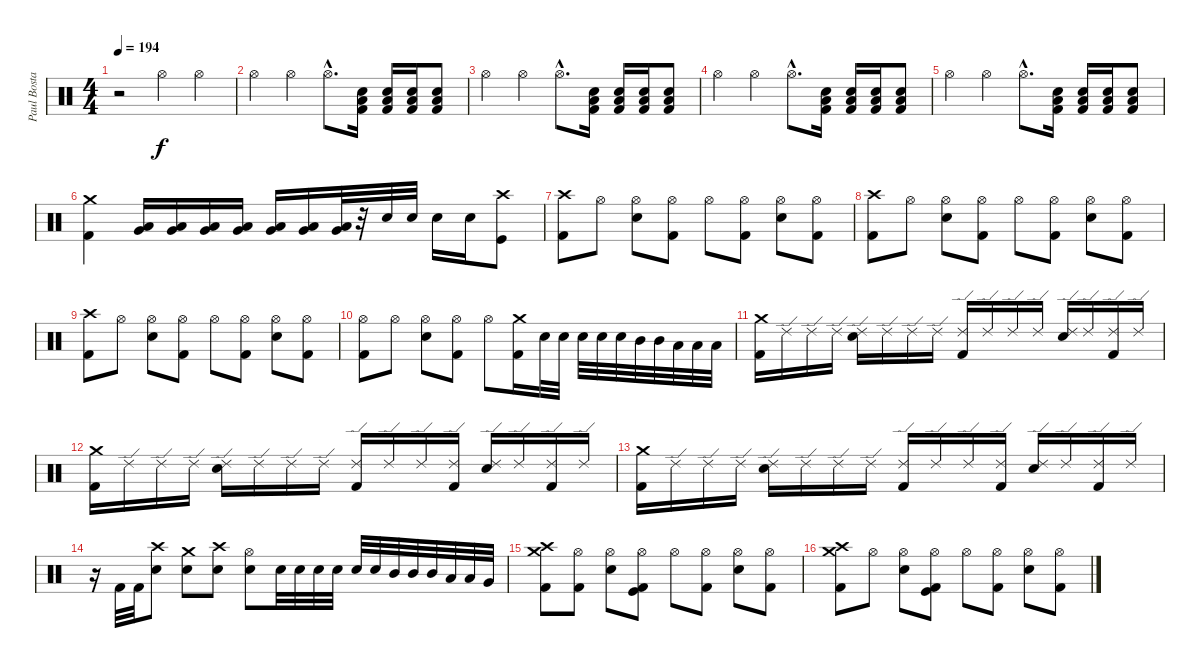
\track ("Paul Bostaph" "Paul Bosta") {instrument percussion}
\staff {score}
\articulation defaults
\ts (4 4)
\tempo 194
\tempo 75
\tempo 194
\clef neutral
\ks c
r.2{dy f} "Hi-Hat (open)".4 "Hi-Hat (open)".4 |
"Hi-Hat (open)".4 "Hi-Hat (open)".4 "Hi-Hat (open)"{hac}.8{d} ("Low Floor Tom (hit)" "Electric Snare (hit)" "Kick (hit) 2").16 ("Low Floor Tom (hit)" "Electric Snare (hit)" "Kick (hit) 2").16 ("Low Floor Tom (hit)" "Electric Snare (hit)" "Kick (hit) 2").16 ("Low Floor Tom (hit)" "Electric Snare (hit)" "Kick (hit) 2").8 |
"Hi-Hat (open)".4 "Hi-Hat (open)".4 "Hi-Hat (open)"{hac}.8{d} ("Low Floor Tom (hit)" "Electric Snare (hit)" "Kick (hit) 2").16 ("Low Floor Tom (hit)" "Electric Snare (hit)" "Kick (hit) 2").16 ("Low Floor Tom (hit)" "Electric Snare (hit)" "Kick (hit) 2").16 ("Low Floor Tom (hit)" "Electric Snare (hit)" "Kick (hit) 2").8 |
"Hi-Hat (open)".4 "Hi-Hat (open)".4 "Hi-Hat (open)"{hac}.8{d} ("Low Floor Tom (hit)" "Electric Snare (hit)" "Kick (hit) 2").16 ("Low Floor Tom (hit)" "Electric Snare (hit)" "Kick (hit) 2").16 ("Low Floor Tom (hit)" "Electric Snare (hit)" "Kick (hit) 2").16 ("Low Floor Tom (hit)" "Electric Snare (hit)" "Kick (hit) 2").8 |
"Hi-Hat (open)".4 "Hi-Hat (open)".4 "Hi-Hat (open)"{hac}.8{d} ("Low Floor Tom (hit)" "Electric Snare (hit)" "Kick (hit) 2").16 ("Low Floor Tom (hit)" "Electric Snare (hit)" "Kick (hit) 2").16 ("Low Floor Tom (hit)" "Electric Snare (hit)" "Kick (hit) 2").16 ("Low Floor Tom (hit)" "Electric Snare (hit)" "Kick (hit) 2").8 |
("Crash medium (hit)" "Kick (hit) 2").4 ("Low Floor Tom (hit)" "Very Low Tom (hit)").16 ("Low Floor Tom (hit)" "Very Low Tom (hit)").16 ("Low Floor Tom (hit)" "Very Low Tom (hit)").16 ("Low Floor Tom (hit)" "Very Low Tom (hit)").16 ("Low Floor Tom (hit)" "Very Low Tom (hit)").16 ("Low Floor Tom (hit)" "Very Low Tom (hit)").16 ("Low Floor Tom (hit)" "Very Low Tom (hit)").32 r.32 "Electric Snare (hit)".32 "Electric Snare (hit)".32 "Electric Snare (hit)".16 "Electric Snare (hit)".16 ("Crash high (hit)" "Kick (hit)").8 |
("Crash high (hit)" "Kick (hit) 2").8 "Hi-Hat (open)".8 ("Hi-Hat (open)" "Electric Snare (hit)").8 ("Hi-Hat (open)" "Kick (hit) 2").8 "Hi-Hat (open)".8 ("Hi-Hat (open)" "Kick (hit) 2").8 ("Hi-Hat (open)" "Electric Snare (hit)").8 ("Hi-Hat (open)" "Kick (hit) 2").8 |
("Crash high (hit)" "Kick (hit) 2").8 "Hi-Hat (open)".8 ("Hi-Hat (open)" "Electric Snare (hit)").8 ("Hi-Hat (open)" "Kick (hit) 2").8 "Hi-Hat (open)".8 ("Hi-Hat (open)" "Kick (hit) 2").8 ("Hi-Hat (open)" "Electric Snare (hit)").8 ("Hi-Hat (open)" "Kick (hit) 2").8 |
("Crash high (hit)" "Kick (hit) 2").8 "Hi-Hat (open)".8 ("Hi-Hat (open)" "Electric Snare (hit)").8 ("Hi-Hat (open)" "Kick (hit) 2").8 "Hi-Hat (open)".8 ("Hi-Hat (open)" "Kick (hit) 2").8 ("Hi-Hat (open)" "Electric Snare (hit)").8 ("Hi-Hat (open)" "Kick (hit) 2").8 |
("Hi-Hat (open)" "Kick (hit) 2").8 "Hi-Hat (open)".8 ("Hi-Hat (open)" "Electric Snare (hit)").8 ("Hi-Hat (open)" "Kick (hit) 2").8 "Hi-Hat (open)".8 ("Crash medium (hit)" "Kick (hit) 2").16 "Electric Snare (hit)".32 "Electric Snare (hit)".32 "Electric Snare (hit)".32 "Electric Snare (hit)".32 "Electric Snare (hit)".32 "Mid Tom (hit)".32 "Mid Tom (hit)".32 "Low Tom (hit)".32 "Low Tom (hit)".32 "Low Tom (hit)".32 |
("Kick (hit) 2" "Crash medium (hit)").16 "Ride (edge) 2".16 "Ride (edge) 2".16 "Ride (edge) 2".16 ("Ride (edge) 2" "Electric Snare (hit)").16 "Ride (edge) 2".16 "Ride (edge) 2".16 "Ride (edge) 2".16 ("Ride (edge) 2" "Kick (hit) 2").16 "Ride (edge) 2".16 "Ride (edge) 2".16 "Ride (edge) 2".16 ("Ride (edge) 2" "Electric Snare (hit)").16 "Ride (edge) 2".16 ("Ride (edge) 2" "Kick (hit) 2").16 "Ride (edge) 2".16 |
("Kick (hit) 2" "Crash medium (hit)").16 "Ride (edge) 2".16 "Ride (edge) 2".16 "Ride (edge) 2".16 ("Ride (edge) 2" "Electric Snare (hit)").16 "Ride (edge) 2".16 "Ride (edge) 2".16 "Ride (edge) 2".16 ("Ride (edge) 2" "Kick (hit) 2").16 "Ride (edge) 2".16 "Ride (edge) 2".16 ("Ride (edge) 2" "Kick (hit) 2").16 ("Ride (edge) 2" "Electric Snare (hit)").16 "Ride (edge) 2".16 ("Ride (edge) 2" "Kick (hit) 2").16 "Ride (edge) 2".16 |
("Kick (hit) 2" "Crash medium (hit)").16 "Ride (edge) 2".16 "Ride (edge) 2".16 "Ride (edge) 2".16 ("Ride (edge) 2" "Electric Snare (hit)").16 "Ride (edge) 2".16 "Ride (edge) 2".16 "Ride (edge) 2".16 ("Ride (edge) 2" "Kick (hit) 2").16 "Ride (edge) 2".16 "Ride (edge) 2".16 ("Ride (edge) 2" "Kick (hit) 2").16 ("Ride (edge) 2" "Electric Snare (hit)").16 "Ride (edge) 2".16 ("Ride (edge) 2" "Kick (hit) 2").16 "Ride (edge) 2".16 |
r.16 "Kick (hit) 2".32 "Kick (hit) 2".32 ("Electric Snare (hit)" "Crash high (hit)").8 ("Electric Snare (hit)" "Crash medium (hit)").8 ("Electric Snare (hit)" "Crash high (hit)").8 ("Electric Snare (hit)" "Hi-Hat (open)").8 "Electric Snare (hit)".32 "Electric Snare (hit)".32 "Electric Snare (hit)".32 "Electric Snare (hit)".32 "Electric Snare (hit)".32 "Electric Snare (hit)".32 "Mid Tom (hit)".32 "Mid Tom (hit)".32 "Mid Tom (hit)".32 "Low Tom (hit)".32 "Low Tom (hit)".32 "Very Low Tom (hit)".32 |
("Crash medium (hit)" "Kick (hit) 2" "Crash high (hit)").8 ("Hi-Hat (open)" "Kick (hit) 2").8 ("Hi-Hat (open)" "Electric Snare (hit)").8 ("Hi-Hat (open)" "Kick (hit) 2" "Kick (hit)").8 "Hi-Hat (open)".8 ("Hi-Hat (open)" "Kick (hit) 2").8 ("Hi-Hat (open)" "Electric Snare (hit)").8 ("Hi-Hat (open)" "Kick (hit) 2").8 |
("Crash medium (hit)" "Kick (hit) 2" "Crash high (hit)").8 "Hi-Hat (open)".8 ("Hi-Hat (open)" "Electric Snare (hit)").8 ("Hi-Hat (open)" "Kick (hit) 2" "Kick (hit)").8 "Hi-Hat (open)".8 ("Hi-Hat (open)" "Kick (hit) 2").8 ("Hi-Hat (open)" "Electric Snare (hit)").8 ("Hi-Hat (open)" "Kick (hit) 2").8
